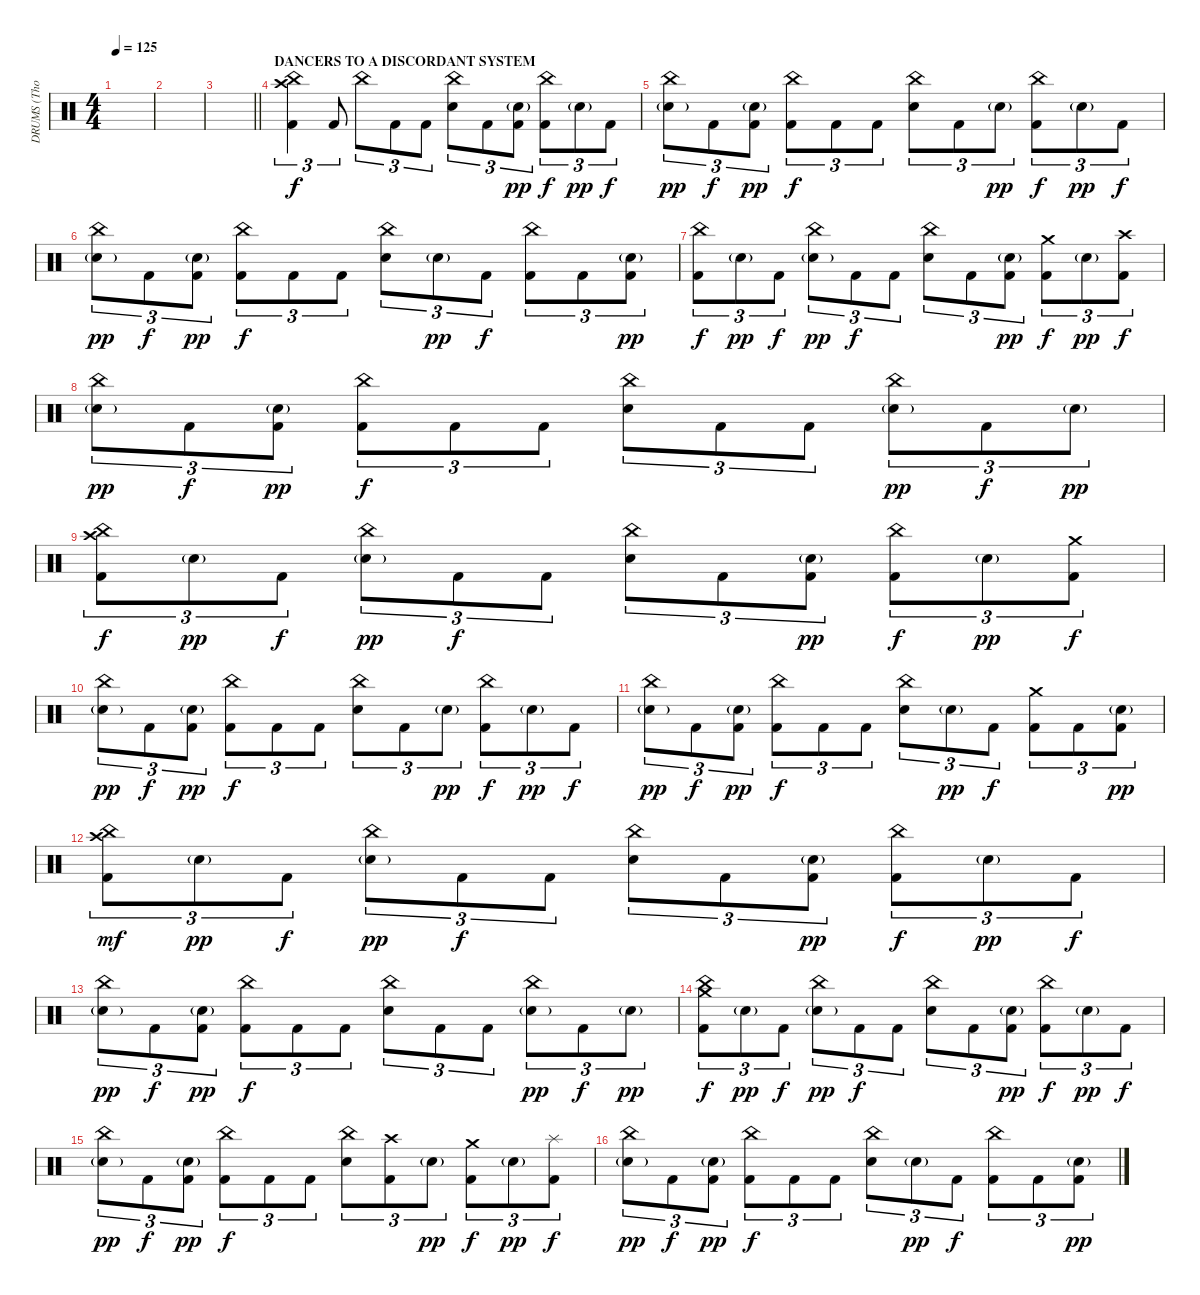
\track ("DRUMS (Thomas Haake)" "DRUMS (Tho") {instrument percussion}
\staff {score}
\articulation defaults
\ts (4 4)
\tempo 125
\clef neutral
\ks c
|
|
\barLineRight lightlight
|
\section ("" "DANCERS TO A DISCORDANT SYSTEM")
("China (hit)" "Crash high (hit)" "Kick (hit) 2").4{tu (3 2)} "Kick (hit) 2".8{tu (3 2)} "China (hit)".8{tu (3 2)} "Kick (hit) 2".8{tu (3 2)} "Kick (hit) 2".8{tu (3 2)} ("China (hit)" "Electric Snare (hit)").8{tu (3 2)} "Kick (hit) 2".8{tu (3 2)} ("Electric Snare (hit)"{g} "Kick (hit) 2").8{tu (3 2) dy pp} ("China (hit)" "Kick (hit) 2").8{tu (3 2) dy f} "Electric Snare (hit)"{g}.8{tu (3 2) dy pp} "Kick (hit) 2".8{tu (3 2) dy f} |
("China (hit)" "Electric Snare (hit)"{g}).8{tu (3 2) dy pp} "Kick (hit) 2".8{tu (3 2) dy f} ("Electric Snare (hit)"{g} "Kick (hit) 2").8{tu (3 2) dy pp} ("China (hit)" "Kick (hit) 2").8{tu (3 2) dy f} "Kick (hit) 2".8{tu (3 2)} "Kick (hit) 2".8{tu (3 2)} ("China (hit)" "Electric Snare (hit)").8{tu (3 2)} "Kick (hit) 2".8{tu (3 2)} "Electric Snare (hit)"{g}.8{tu (3 2) dy pp} ("China (hit)" "Kick (hit) 2").8{tu (3 2) dy f} "Electric Snare (hit)"{g}.8{tu (3 2) dy pp} "Kick (hit) 2".8{tu (3 2) dy f} |
("China (hit)" "Electric Snare (hit)"{g}).8{tu (3 2) dy pp} "Kick (hit) 2".8{tu (3 2) dy f} ("Electric Snare (hit)"{g} "Kick (hit) 2").8{tu (3 2) dy pp} ("China (hit)" "Kick (hit) 2").8{tu (3 2) dy f} "Kick (hit) 2".8{tu (3 2)} "Kick (hit) 2".8{tu (3 2)} ("China (hit)" "Electric Snare (hit)").8{tu (3 2)} "Electric Snare (hit)"{g}.8{tu (3 2) dy pp} "Kick (hit) 2".8{tu (3 2) dy f} ("China (hit)" "Kick (hit) 2").8{tu (3 2)} "Kick (hit) 2".8{tu (3 2)} ("Electric Snare (hit)"{g} "Kick (hit) 2").8{tu (3 2) dy pp} |
("China (hit)" "Kick (hit) 2").8{tu (3 2) dy f} "Electric Snare (hit)"{g}.8{tu (3 2) dy pp} "Kick (hit) 2".8{tu (3 2) dy f} ("China (hit)" "Electric Snare (hit)"{g}).8{tu (3 2) dy pp} "Kick (hit) 2".8{tu (3 2) dy f} "Kick (hit) 2".8{tu (3 2)} ("China (hit)" "Electric Snare (hit)").8{tu (3 2)} "Kick (hit) 2".8{tu (3 2)} ("Electric Snare (hit)"{g} "Kick (hit) 2").8{tu (3 2) dy pp} ("Crash medium (hit)" "Kick (hit) 2").8{tu (3 2) dy f} "Electric Snare (hit)"{g}.8{tu (3 2) dy pp} ("Crash high (hit)" "Kick (hit) 2").8{tu (3 2) dy f} |
("China (hit)" "Electric Snare (hit)"{g}).8{tu (3 2) dy pp} "Kick (hit) 2".8{tu (3 2) dy f} ("Electric Snare (hit)"{g} "Kick (hit) 2").8{tu (3 2) dy pp} ("China (hit)" "Kick (hit) 2").8{tu (3 2) dy f} "Kick (hit) 2".8{tu (3 2)} "Kick (hit) 2".8{tu (3 2)} ("China (hit)" "Electric Snare (hit)").8{tu (3 2)} "Kick (hit) 2".8{tu (3 2)} "Kick (hit) 2".8{tu (3 2)} ("China (hit)" "Electric Snare (hit)"{g}).8{tu (3 2) dy pp} "Kick (hit) 2".8{tu (3 2) dy f} "Electric Snare (hit)"{g}.8{tu (3 2) dy pp} |
("China (hit)" "Crash high (hit)" "Kick (hit) 2").8{tu (3 2) dy f} "Electric Snare (hit)"{g}.8{tu (3 2) dy pp} "Kick (hit) 2".8{tu (3 2) dy f} ("China (hit)" "Electric Snare (hit)"{g}).8{tu (3 2) dy pp} "Kick (hit) 2".8{tu (3 2) dy f} "Kick (hit) 2".8{tu (3 2)} ("China (hit)" "Electric Snare (hit)").8{tu (3 2)} "Kick (hit) 2".8{tu (3 2)} ("Electric Snare (hit)"{g} "Kick (hit) 2").8{tu (3 2) dy pp} ("China (hit)" "Kick (hit) 2").8{tu (3 2) dy f} "Electric Snare (hit)"{g}.8{tu (3 2) dy pp} ("Crash medium (hit)" "Kick (hit) 2").8{tu (3 2) dy f} |
("China (hit)" "Electric Snare (hit)"{g}).8{tu (3 2) dy pp} "Kick (hit) 2".8{tu (3 2) dy f} ("Electric Snare (hit)"{g} "Kick (hit) 2").8{tu (3 2) dy pp} ("China (hit)" "Kick (hit) 2").8{tu (3 2) dy f} "Kick (hit) 2".8{tu (3 2)} "Kick (hit) 2".8{tu (3 2)} ("China (hit)" "Electric Snare (hit)").8{tu (3 2)} "Kick (hit) 2".8{tu (3 2)} "Electric Snare (hit)"{g}.8{tu (3 2) dy pp} ("China (hit)" "Kick (hit) 2").8{tu (3 2) dy f} "Electric Snare (hit)"{g}.8{tu (3 2) dy pp} "Kick (hit) 2".8{tu (3 2) dy f} |
("China (hit)" "Electric Snare (hit)"{g}).8{tu (3 2) dy pp} "Kick (hit) 2".8{tu (3 2) dy f} ("Electric Snare (hit)"{g} "Kick (hit) 2").8{tu (3 2) dy pp} ("China (hit)" "Kick (hit) 2").8{tu (3 2) dy f} "Kick (hit) 2".8{tu (3 2)} "Kick (hit) 2".8{tu (3 2)} ("China (hit)" "Electric Snare (hit)").8{tu (3 2)} "Electric Snare (hit)"{g}.8{tu (3 2) dy pp} "Kick (hit) 2".8{tu (3 2) dy f} ("Crash medium (hit)" "Kick (hit) 2").8{tu (3 2)} "Kick (hit) 2".8{tu (3 2)} ("Electric Snare (hit)"{g} "Kick (hit) 2").8{tu (3 2) dy pp} |
("China (hit)" "Crash high (hit)" "Kick (hit) 2").8{tu (3 2) dy mf} "Electric Snare (hit)"{g}.8{tu (3 2) dy pp} "Kick (hit) 2".8{tu (3 2) dy f} ("China (hit)" "Electric Snare (hit)"{g}).8{tu (3 2) dy pp} "Kick (hit) 2".8{tu (3 2) dy f} "Kick (hit) 2".8{tu (3 2)} ("China (hit)" "Electric Snare (hit)").8{tu (3 2)} "Kick (hit) 2".8{tu (3 2)} ("Electric Snare (hit)"{g} "Kick (hit) 2").8{tu (3 2) dy pp} ("China (hit)" "Kick (hit) 2").8{tu (3 2) dy f} "Electric Snare (hit)"{g}.8{tu (3 2) dy pp} "Kick (hit) 2".8{tu (3 2) dy f} |
("China (hit)" "Electric Snare (hit)"{g}).8{tu (3 2) dy pp} "Kick (hit) 2".8{tu (3 2) dy f} ("Electric Snare (hit)"{g} "Kick (hit) 2").8{tu (3 2) dy pp} ("China (hit)" "Kick (hit) 2").8{tu (3 2) dy f} "Kick (hit) 2".8{tu (3 2)} "Kick (hit) 2".8{tu (3 2)} ("China (hit)" "Electric Snare (hit)").8{tu (3 2)} "Kick (hit) 2".8{tu (3 2)} "Kick (hit) 2".8{tu (3 2)} ("China (hit)" "Electric Snare (hit)"{g}).8{tu (3 2) dy pp} "Kick (hit) 2".8{tu (3 2) dy f} "Electric Snare (hit)"{g}.8{tu (3 2) dy pp} |
("China (hit)" "Crash medium (hit)" "Kick (hit) 2").8{tu (3 2) dy f} "Electric Snare (hit)"{g}.8{tu (3 2) dy pp} "Kick (hit) 2".8{tu (3 2) dy f} ("China (hit)" "Electric Snare (hit)"{g}).8{tu (3 2) dy pp} "Kick (hit) 2".8{tu (3 2) dy f} "Kick (hit) 2".8{tu (3 2)} ("China (hit)" "Electric Snare (hit)").8{tu (3 2)} "Kick (hit) 2".8{tu (3 2)} ("Electric Snare (hit)"{g} "Kick (hit) 2").8{tu (3 2) dy pp} ("China (hit)" "Kick (hit) 2").8{tu (3 2) dy f} "Electric Snare (hit)"{g}.8{tu (3 2) dy pp} "Kick (hit) 2".8{tu (3 2) dy f} |
("China (hit)" "Electric Snare (hit)"{g}).8{tu (3 2) dy pp} "Kick (hit) 2".8{tu (3 2) dy f} ("Electric Snare (hit)"{g} "Kick (hit) 2").8{tu (3 2) dy pp} ("China (hit)" "Kick (hit) 2").8{tu (3 2) dy f} "Kick (hit) 2".8{tu (3 2)} "Kick (hit) 2".8{tu (3 2)} ("China (hit)" "Electric Snare (hit)").8{tu (3 2)} ("Crash high (hit)" "Kick (hit) 2").8{tu (3 2)} "Electric Snare (hit)"{g}.8{tu (3 2) dy pp} ("Crash medium (hit)" "Kick (hit) 2").8{tu (3 2) dy f} "Electric Snare (hit)"{g}.8{tu (3 2) dy pp} ("Splash (hit)" "Kick (hit) 2").8{tu (3 2) dy f} |
("China (hit)" "Electric Snare (hit)"{g}).8{tu (3 2) dy pp} "Kick (hit) 2".8{tu (3 2) dy f} ("Electric Snare (hit)"{g} "Kick (hit) 2").8{tu (3 2) dy pp} ("China (hit)" "Kick (hit) 2").8{tu (3 2) dy f} "Kick (hit) 2".8{tu (3 2)} "Kick (hit) 2".8{tu (3 2)} ("China (hit)" "Electric Snare (hit)").8{tu (3 2)} "Electric Snare (hit)"{g}.8{tu (3 2) dy pp} "Kick (hit) 2".8{tu (3 2) dy f} ("China (hit)" "Kick (hit) 2").8{tu (3 2)} "Kick (hit) 2".8{tu (3 2)} ("Electric Snare (hit)"{g} "Kick (hit) 2").8{tu (3 2) dy pp}
